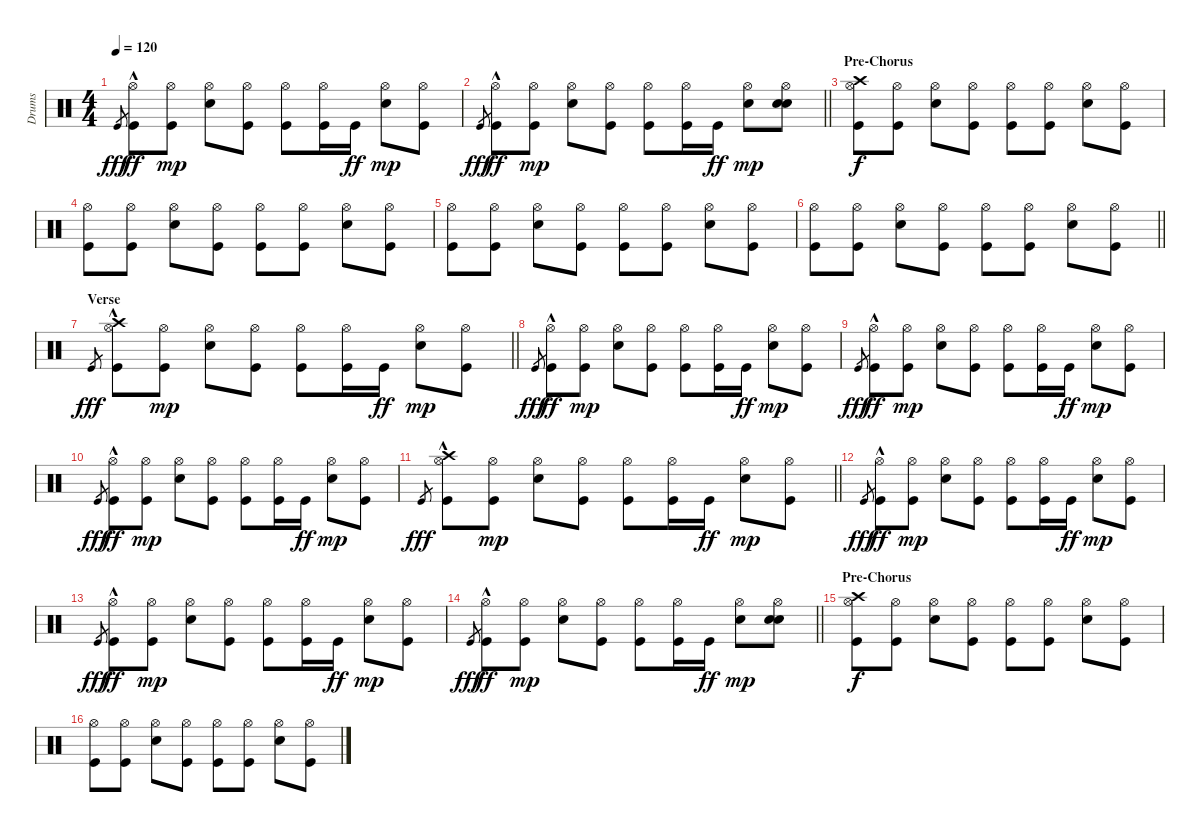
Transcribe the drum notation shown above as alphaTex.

\track ("Drums" "Drums") {instrument percussion}
\staff {score}
\articulation defaults
\ts (4 4)
\tempo 120
\clef neutral
\ks c "Kick (hit)".8{gr dy fff}
("Kick (hit)"{hac} "Hi-Hat (open)").8{dy ff} ("Kick (hit)" "Hi-Hat (open)").8{dy mp} ("Electric Snare (hit)" "Hi-Hat (open)").8 ("Kick (hit)" "Hi-Hat (open)").8 ("Kick (hit)" "Hi-Hat (open)").8 ("Kick (hit)" "Hi-Hat (open)").16 "Kick (hit)".16{dy ff} ("Electric Snare (hit)" "Hi-Hat (open)").8{dy mp} ("Kick (hit)" "Hi-Hat (open)").8 |
\barLineRight lightlight "Kick (hit)".8{gr dy fff}
("Kick (hit)"{hac} "Hi-Hat (open)").8{dy ff} ("Kick (hit)" "Hi-Hat (open)").8{dy mp} ("Electric Snare (hit)" "Hi-Hat (open)").8 ("Kick (hit)" "Hi-Hat (open)").8 ("Kick (hit)" "Hi-Hat (open)").8 ("Kick (hit)" "Hi-Hat (open)").16 "Kick (hit)".16{dy ff} ("Electric Snare (hit)" "Hi-Hat (open)").8{dy mp} ("Snare (hit) 2" "Electric Snare (hit)" "Hi-Hat (open)").8 |
\section ("" "Pre-Chorus")
("Kick (hit)" "Hi-Hat (open)" "Crash high (hit)").8{dy f} ("Kick (hit)" "Hi-Hat (open)").8 ("Electric Snare (hit)" "Hi-Hat (open)").8 ("Kick (hit)" "Hi-Hat (open)").8 ("Kick (hit)" "Hi-Hat (open)").8 ("Kick (hit)" "Hi-Hat (open)").8 ("Electric Snare (hit)" "Hi-Hat (open)").8 ("Kick (hit)" "Hi-Hat (open)").8 |
("Kick (hit)" "Hi-Hat (open)").8 ("Kick (hit)" "Hi-Hat (open)").8 ("Electric Snare (hit)" "Hi-Hat (open)").8 ("Kick (hit)" "Hi-Hat (open)").8 ("Kick (hit)" "Hi-Hat (open)").8 ("Kick (hit)" "Hi-Hat (open)").8 ("Electric Snare (hit)" "Hi-Hat (open)").8 ("Kick (hit)" "Hi-Hat (open)").8 |
("Kick (hit)" "Hi-Hat (open)").8 ("Kick (hit)" "Hi-Hat (open)").8 ("Electric Snare (hit)" "Hi-Hat (open)").8 ("Kick (hit)" "Hi-Hat (open)").8 ("Kick (hit)" "Hi-Hat (open)").8 ("Kick (hit)" "Hi-Hat (open)").8 ("Electric Snare (hit)" "Hi-Hat (open)").8 ("Kick (hit)" "Hi-Hat (open)").8 |
\barLineRight lightlight
("Kick (hit)" "Hi-Hat (open)").8 ("Kick (hit)" "Hi-Hat (open)").8 ("Electric Snare (hit)" "Hi-Hat (open)").8 ("Kick (hit)" "Hi-Hat (open)").8 ("Kick (hit)" "Hi-Hat (open)").8 ("Kick (hit)" "Hi-Hat (open)").8 ("Electric Snare (hit)" "Hi-Hat (open)").8 ("Kick (hit)" "Hi-Hat (open)").8 |
\section ("" "Verse")
\barLineRight lightlight "Kick (hit)".8{gr dy fff}
("Kick (hit)"{hac} "Hi-Hat (open)" "Crash high (hit)").8 ("Kick (hit)" "Hi-Hat (open)").8{dy mp} ("Electric Snare (hit)" "Hi-Hat (open)").8 ("Kick (hit)" "Hi-Hat (open)").8 ("Kick (hit)" "Hi-Hat (open)").8 ("Kick (hit)" "Hi-Hat (open)").16 "Kick (hit)".16{dy ff} ("Electric Snare (hit)" "Hi-Hat (open)").8{dy mp} ("Kick (hit)" "Hi-Hat (open)").8 |
"Kick (hit)".8{gr dy fff} ("Kick (hit)"{hac} "Hi-Hat (open)").8{dy ff} ("Kick (hit)" "Hi-Hat (open)").8{dy mp} ("Electric Snare (hit)" "Hi-Hat (open)").8 ("Kick (hit)" "Hi-Hat (open)").8 ("Kick (hit)" "Hi-Hat (open)").8 ("Kick (hit)" "Hi-Hat (open)").16 "Kick (hit)".16{dy ff} ("Electric Snare (hit)" "Hi-Hat (open)").8{dy mp} ("Kick (hit)" "Hi-Hat (open)").8 |
"Kick (hit)".8{gr dy fff} ("Kick (hit)"{hac} "Hi-Hat (open)").8{dy ff} ("Kick (hit)" "Hi-Hat (open)").8{dy mp} ("Electric Snare (hit)" "Hi-Hat (open)").8 ("Kick (hit)" "Hi-Hat (open)").8 ("Kick (hit)" "Hi-Hat (open)").8 ("Kick (hit)" "Hi-Hat (open)").16 "Kick (hit)".16{dy ff} ("Electric Snare (hit)" "Hi-Hat (open)").8{dy mp} ("Kick (hit)" "Hi-Hat (open)").8 |
"Kick (hit)".8{gr dy fff} ("Kick (hit)"{hac} "Hi-Hat (open)").8{dy ff} ("Kick (hit)" "Hi-Hat (open)").8{dy mp} ("Electric Snare (hit)" "Hi-Hat (open)").8 ("Kick (hit)" "Hi-Hat (open)").8 ("Kick (hit)" "Hi-Hat (open)").8 ("Kick (hit)" "Hi-Hat (open)").16 "Kick (hit)".16{dy ff} ("Electric Snare (hit)" "Hi-Hat (open)").8{dy mp} ("Kick (hit)" "Hi-Hat (open)").8 |
\barLineRight lightlight "Kick (hit)".8{gr dy fff}
("Kick (hit)"{hac} "Hi-Hat (open)" "Crash high (hit)").8 ("Kick (hit)" "Hi-Hat (open)").8{dy mp} ("Electric Snare (hit)" "Hi-Hat (open)").8 ("Kick (hit)" "Hi-Hat (open)").8 ("Kick (hit)" "Hi-Hat (open)").8 ("Kick (hit)" "Hi-Hat (open)").16 "Kick (hit)".16{dy ff} ("Electric Snare (hit)" "Hi-Hat (open)").8{dy mp} ("Kick (hit)" "Hi-Hat (open)").8 |
"Kick (hit)".8{gr dy fff} ("Kick (hit)"{hac} "Hi-Hat (open)").8{dy ff} ("Kick (hit)" "Hi-Hat (open)").8{dy mp} ("Electric Snare (hit)" "Hi-Hat (open)").8 ("Kick (hit)" "Hi-Hat (open)").8 ("Kick (hit)" "Hi-Hat (open)").8 ("Kick (hit)" "Hi-Hat (open)").16 "Kick (hit)".16{dy ff} ("Electric Snare (hit)" "Hi-Hat (open)").8{dy mp} ("Kick (hit)" "Hi-Hat (open)").8 |
"Kick (hit)".8{gr dy fff} ("Kick (hit)"{hac} "Hi-Hat (open)").8{dy ff} ("Kick (hit)" "Hi-Hat (open)").8{dy mp} ("Electric Snare (hit)" "Hi-Hat (open)").8 ("Kick (hit)" "Hi-Hat (open)").8 ("Kick (hit)" "Hi-Hat (open)").8 ("Kick (hit)" "Hi-Hat (open)").16 "Kick (hit)".16{dy ff} ("Electric Snare (hit)" "Hi-Hat (open)").8{dy mp} ("Kick (hit)" "Hi-Hat (open)").8 |
\barLineRight lightlight "Kick (hit)".8{gr dy fff}
("Kick (hit)"{hac} "Hi-Hat (open)").8{dy ff} ("Kick (hit)" "Hi-Hat (open)").8{dy mp} ("Electric Snare (hit)" "Hi-Hat (open)").8 ("Kick (hit)" "Hi-Hat (open)").8 ("Kick (hit)" "Hi-Hat (open)").8 ("Kick (hit)" "Hi-Hat (open)").16 "Kick (hit)".16{dy ff} ("Electric Snare (hit)" "Hi-Hat (open)").8{dy mp} ("Snare (hit) 2" "Electric Snare (hit)" "Hi-Hat (open)").8 |
\section ("" "Pre-Chorus")
("Kick (hit)" "Hi-Hat (open)" "Crash high (hit)").8{dy f} ("Kick (hit)" "Hi-Hat (open)").8 ("Electric Snare (hit)" "Hi-Hat (open)").8 ("Kick (hit)" "Hi-Hat (open)").8 ("Kick (hit)" "Hi-Hat (open)").8 ("Kick (hit)" "Hi-Hat (open)").8 ("Electric Snare (hit)" "Hi-Hat (open)").8 ("Kick (hit)" "Hi-Hat (open)").8 |
("Kick (hit)" "Hi-Hat (open)").8 ("Kick (hit)" "Hi-Hat (open)").8 ("Electric Snare (hit)" "Hi-Hat (open)").8 ("Kick (hit)" "Hi-Hat (open)").8 ("Kick (hit)" "Hi-Hat (open)").8 ("Kick (hit)" "Hi-Hat (open)").8 ("Electric Snare (hit)" "Hi-Hat (open)").8 ("Kick (hit)" "Hi-Hat (open)").8
